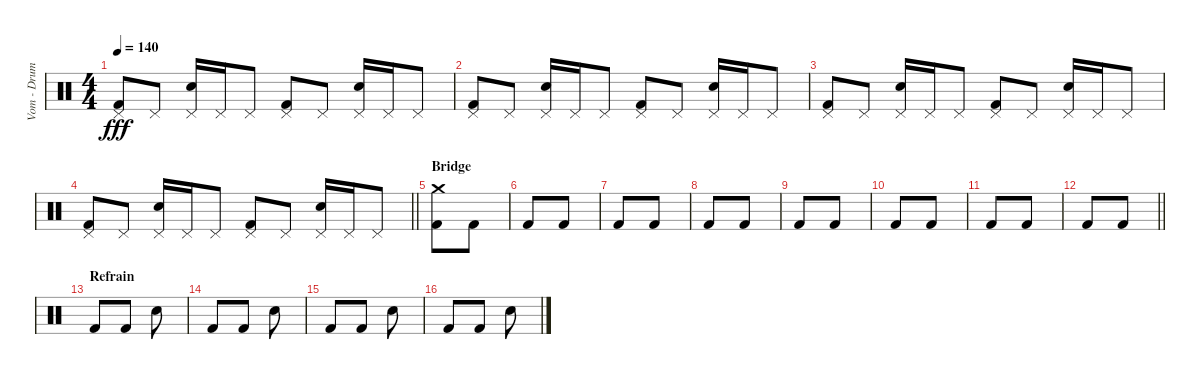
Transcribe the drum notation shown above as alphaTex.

\track ("Vom - Drums" "Vom - Drum") {instrument percussion}
\staff {score}
\articulation defaults
\ts (4 4)
\tempo 140
\clef neutral
\ks c
("Pedal Hi-Hat (hit)" "Kick (hit) 2").8{dy fff} "Pedal Hi-Hat (hit)".8 ("Pedal Hi-Hat (hit)" "Snare (hit) 2").16 "Pedal Hi-Hat (hit)".16 "Pedal Hi-Hat (hit)".8 ("Pedal Hi-Hat (hit)" "Kick (hit) 2").8 "Pedal Hi-Hat (hit)".8 ("Pedal Hi-Hat (hit)" "Snare (hit) 2").16 "Pedal Hi-Hat (hit)".16 "Pedal Hi-Hat (hit)".8 |
("Pedal Hi-Hat (hit)" "Kick (hit) 2").8 "Pedal Hi-Hat (hit)".8 ("Pedal Hi-Hat (hit)" "Snare (hit) 2").16 "Pedal Hi-Hat (hit)".16 "Pedal Hi-Hat (hit)".8 ("Pedal Hi-Hat (hit)" "Kick (hit) 2").8 "Pedal Hi-Hat (hit)".8 ("Pedal Hi-Hat (hit)" "Snare (hit) 2").16 "Pedal Hi-Hat (hit)".16 "Pedal Hi-Hat (hit)".8 |
("Pedal Hi-Hat (hit)" "Kick (hit) 2").8 "Pedal Hi-Hat (hit)".8 ("Pedal Hi-Hat (hit)" "Snare (hit) 2").16 "Pedal Hi-Hat (hit)".16 "Pedal Hi-Hat (hit)".8 ("Pedal Hi-Hat (hit)" "Kick (hit) 2").8 "Pedal Hi-Hat (hit)".8 ("Pedal Hi-Hat (hit)" "Snare (hit) 2").16 "Pedal Hi-Hat (hit)".16 "Pedal Hi-Hat (hit)".8 |
\barLineRight lightlight
("Pedal Hi-Hat (hit)" "Kick (hit) 2").8 "Pedal Hi-Hat (hit)".8 ("Pedal Hi-Hat (hit)" "Snare (hit) 2").16 "Pedal Hi-Hat (hit)".16 "Pedal Hi-Hat (hit)".8 ("Pedal Hi-Hat (hit)" "Kick (hit) 2").8 "Pedal Hi-Hat (hit)".8 ("Pedal Hi-Hat (hit)" "Snare (hit) 2").16 "Pedal Hi-Hat (hit)".16 "Pedal Hi-Hat (hit)".8 |
\section ("" "Bridge")
("Crash medium (hit)" "Kick (hit) 2").8 "Kick (hit) 2".8 |
"Kick (hit) 2".8 "Kick (hit) 2".8 |
"Kick (hit) 2".8 "Kick (hit) 2".8 |
"Kick (hit) 2".8 "Kick (hit) 2".8 |
"Kick (hit) 2".8 "Kick (hit) 2".8 |
"Kick (hit) 2".8 "Kick (hit) 2".8 |
"Kick (hit) 2".8 "Kick (hit) 2".8 |
\barLineRight lightlight "Kick (hit) 2".8 "Kick (hit) 2".8
|
\section ("" "Refrain")
"Kick (hit) 2".8 "Kick (hit) 2".8 "Snare (hit) 2".8 |
"Kick (hit) 2".8 "Kick (hit) 2".8 "Snare (hit) 2".8 |
"Kick (hit) 2".8 "Kick (hit) 2".8 "Snare (hit) 2".8 |
"Kick (hit) 2".8 "Kick (hit) 2".8 "Snare (hit) 2".8
